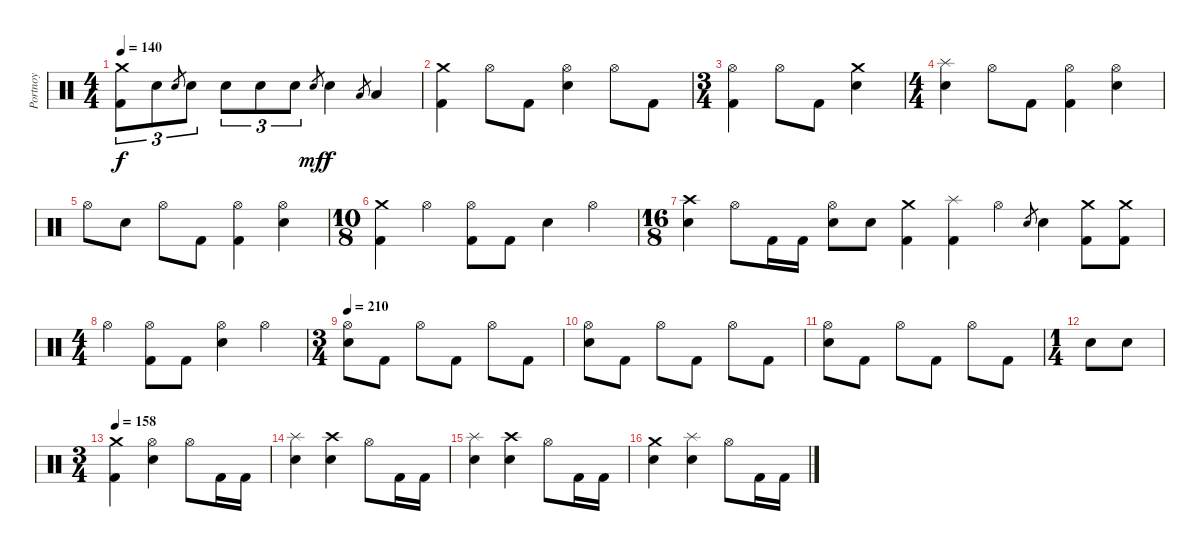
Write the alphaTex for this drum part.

\track ("Portnoy" "Portnoy") {instrument percussion}
\staff {score}
\articulation defaults
\ts (4 4)
\tempo 140
\clef neutral
\ks c
("Kick (hit) 2" "Crash medium (hit)").8{tu (3 2) dy f} "Electric Snare (hit)".8{tu (3 2)} "Electric Snare (hit)".8{gr} "Electric Snare (hit)".8{tu (3 2)} "Electric Snare (hit)".8{tu (3 2)} "Electric Snare (hit)".8{tu (3 2)} "Electric Snare (hit)".8{tu (3 2)} "Electric Snare (hit)".8{gr dy mf} "Electric Snare (hit)".4{dy f} "Low Tom (hit)".8{gr} "Low Tom (hit)".4 |
("Kick (hit) 2" "Crash medium (hit)").4 "Hi-Hat (open)".8 "Kick (hit) 2".8 ("Electric Snare (hit)" "Hi-Hat (open)").4 "Hi-Hat (open)".8 "Kick (hit) 2".8 |
\ts (3 4)
("Kick (hit) 2" "Hi-Hat (open)").4 "Hi-Hat (open)".8 "Kick (hit) 2".8 ("Electric Snare (hit)" "Crash medium (hit)").4 |
\ts (4 4)
("Electric Snare (hit)" "Splash (hit)").4 "Hi-Hat (open)".8 "Kick (hit) 2".8 ("Kick (hit) 2" "Hi-Hat (open)").4 ("Electric Snare (hit)" "Hi-Hat (open)").4 |
"Hi-Hat (open)".8 "Electric Snare (hit)".8 "Hi-Hat (open)".8 "Kick (hit) 2".8 ("Kick (hit) 2" "Hi-Hat (open)").4 ("Electric Snare (hit)" "Hi-Hat (open)").4 |
\ts (10 8)
("Kick (hit) 2" "Crash medium (hit)").4 "Hi-Hat (open)".4 ("Kick (hit) 2" "Hi-Hat (open)").8 "Kick (hit) 2".8 "Electric Snare (hit)".4 "Hi-Hat (open)".4 |
\ts (16 8)
("Electric Snare (hit)" "Crash high (hit)").4 "Hi-Hat (open)".8 "Kick (hit) 2".16 "Kick (hit) 2".16 ("Electric Snare (hit)" "Hi-Hat (open)").8 "Electric Snare (hit)".8 ("Kick (hit) 2" "Crash medium (hit)").4 ("Kick (hit) 2" "Splash (hit)").4 "Hi-Hat (open)".4 "Electric Snare (hit)".8{gr} "Electric Snare (hit)".4 ("Kick (hit) 2" "Crash medium (hit)").8 ("Kick (hit) 2" "Crash medium (hit)").8 |
\ts (4 4)
"Hi-Hat (open)".4 ("Kick (hit) 2" "Hi-Hat (open)").8 "Kick (hit) 2".8 ("Electric Snare (hit)" "Hi-Hat (open)").4 "Hi-Hat (open)".4 |
\ts (3 4)
\tempo 210
("Electric Snare (hit)" "Hi-Hat (open)").8 "Kick (hit) 2".8 "Hi-Hat (open)".8 "Kick (hit) 2".8 "Hi-Hat (open)".8 "Kick (hit) 2".8 |
("Electric Snare (hit)" "Hi-Hat (open)").8 "Kick (hit) 2".8 "Hi-Hat (open)".8 "Kick (hit) 2".8 "Hi-Hat (open)".8 "Kick (hit) 2".8 |
("Electric Snare (hit)" "Hi-Hat (open)").8 "Kick (hit) 2".8 "Hi-Hat (open)".8 "Kick (hit) 2".8 "Hi-Hat (open)".8 "Kick (hit) 2".8 |
\ts (1 4)
"Electric Snare (hit)".8 "Electric Snare (hit)".8 |
\ts (3 4)
\tempo 158
("Kick (hit) 2" "Crash medium (hit)").4 ("Electric Snare (hit)" "Hi-Hat (open)").4 "Hi-Hat (open)".8 "Kick (hit) 2".16 "Kick (hit) 2".16 |
("Electric Snare (hit)" "Splash (hit)").4 ("Electric Snare (hit)" "Crash high (hit)").4 "Hi-Hat (open)".8 "Kick (hit) 2".16 "Kick (hit) 2".16 |
("Electric Snare (hit)" "Splash (hit)").4 ("Electric Snare (hit)" "Crash high (hit)").4 "Hi-Hat (open)".8 "Kick (hit) 2".16 "Kick (hit) 2".16 |
("Electric Snare (hit)" "Crash medium (hit)").4 ("Electric Snare (hit)" "Splash (hit)").4 "Hi-Hat (open)".8 "Kick (hit) 2".16 "Kick (hit) 2".16
